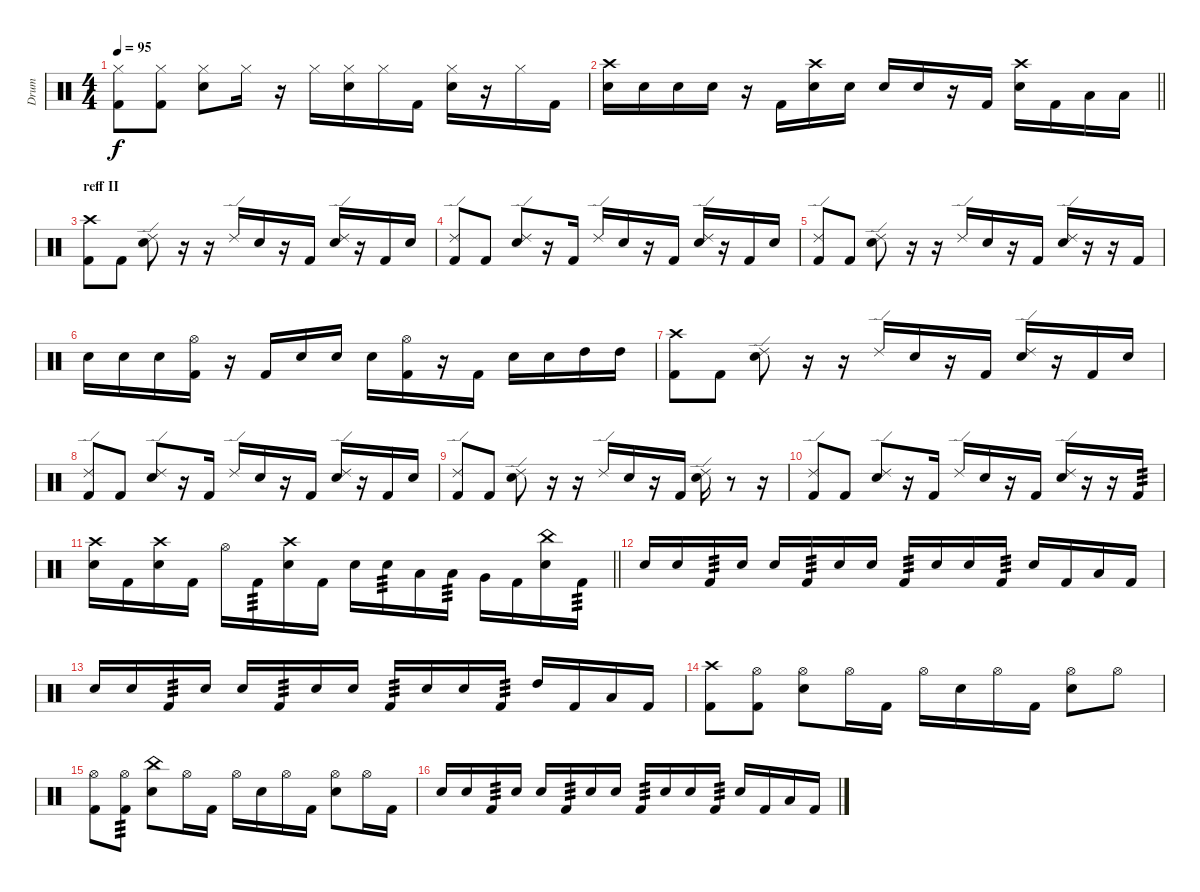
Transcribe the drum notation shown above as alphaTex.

\track ("Drum" "Drum") {instrument percussion}
\staff {score}
\articulation defaults
\ts (4 4)
\tempo 95
\clef neutral
\ks c
("Hi-Hat (closed)" "Kick (hit) 2").8{dy f} ("Hi-Hat (closed)" "Kick (hit) 2").8 ("Hi-Hat (closed)" "Snare (hit) 2").8 "Hi-Hat (closed)".16 r.16 "Hi-Hat (closed)".16 ("Hi-Hat (closed)" "Snare (hit) 2").16 "Hi-Hat (closed)".16 "Kick (hit) 2".16 ("Hi-Hat (closed)" "Snare (hit) 2").16 r.16 "Hi-Hat (closed)".16 "Kick (hit) 2".16 |
\barLineRight lightlight
("Crash high (hit)" "Snare (hit) 2").16 "Snare (hit) 2".16 "Snare (hit) 2".16 "Snare (hit) 2".16 r.16 "Kick (hit) 2".16 ("Crash high (hit)" "Snare (hit) 2").16 "Snare (hit) 2".16 "Snare (hit) 2".16 "Snare (hit) 2".16 r.16 "Kick (hit) 2".16 ("Crash high (hit)" "Snare (hit) 2").16 "Kick (hit) 2".16 "Low Tom (hit)".16 "Low Tom (hit)".16 |
\section ("" "reff II")
("Crash high (hit)" "Kick (hit) 2").8 "Kick (hit) 2".8 ("Ride (edge) 2" "Snare (hit) 2").8 r.16 r.16 "Ride (edge) 2".16 "Snare (hit) 2".16 r.16 "Kick (hit) 2".16 ("Ride (edge) 2" "Snare (hit) 2").16 r.16 "Kick (hit) 2".16 "Snare (hit) 2".16 |
("Ride (edge) 2" "Kick (hit) 2").8 "Kick (hit) 2".8 ("Ride (edge) 2" "Snare (hit) 2").8 r.16 "Kick (hit) 2".16 "Ride (edge) 2".16 "Snare (hit) 2".16 r.16 "Kick (hit) 2".16 ("Ride (edge) 2" "Snare (hit) 2").16 r.16 "Kick (hit) 2".16 "Snare (hit) 2".16 |
("Ride (edge) 2" "Kick (hit) 2").8 "Kick (hit) 2".8 ("Ride (edge) 2" "Snare (hit) 2").8 r.16 r.16 "Ride (edge) 2".16 "Snare (hit) 2".16 r.16 "Kick (hit) 2".16 ("Ride (edge) 2" "Snare (hit) 2").16 r.16 r.16 "Kick (hit) 2".16 |
"Snare (hit) 2".16 "Snare (hit) 2".16 "Snare (hit) 2".16 ("Hi-Hat (open)" "Kick (hit) 2").16 r.16 "Kick (hit) 2".16 "Snare (hit) 2".16 "Snare (hit) 2".16 "Snare (hit) 2".16 ("Hi-Hat (open)" "Kick (hit) 2").16 r.16 "Kick (hit) 2".16 "Snare (hit) 2".16 "Snare (hit) 2".16 "High Tom (hit)".16 "High Tom (hit)".16 |
("Crash high (hit)" "Kick (hit) 2").8 "Kick (hit) 2".8 ("Ride (edge) 2" "Snare (hit) 2").8 r.16 r.16 "Ride (edge) 2".16 "Snare (hit) 2".16 r.16 "Kick (hit) 2".16 ("Ride (edge) 2" "Snare (hit) 2").16 r.16 "Kick (hit) 2".16 "Snare (hit) 2".16 |
("Ride (edge) 2" "Kick (hit) 2").8 "Kick (hit) 2".8 ("Ride (edge) 2" "Snare (hit) 2").8 r.16 "Kick (hit) 2".16 "Ride (edge) 2".16 "Snare (hit) 2".16 r.16 "Kick (hit) 2".16 ("Ride (edge) 2" "Snare (hit) 2").16 r.16 "Kick (hit) 2".16 "Snare (hit) 2".16 |
("Ride (edge) 2" "Kick (hit) 2").8 "Kick (hit) 2".8 ("Ride (edge) 2" "Snare (hit) 2").8 r.16 r.16 "Ride (edge) 2".16 "Snare (hit) 2".16 r.16 "Kick (hit) 2".16 ("Ride (edge) 2" "Snare (hit) 2").16 r.8 r.16 |
("Ride (edge) 2" "Kick (hit) 2").8 "Kick (hit) 2".8 ("Ride (edge) 2" "Snare (hit) 2").8 r.16 "Kick (hit) 2".16 "Ride (edge) 2".16 "Snare (hit) 2".16 r.16 "Kick (hit) 2".16 ("Ride (edge) 2" "Snare (hit) 2").16 r.16 r.16 "Kick (hit) 2".16{tp 3} |
\barLineRight lightlight
("Crash high (hit)" "Snare (hit) 2").16 "Kick (hit) 2".16 ("Crash high (hit)" "Snare (hit) 2").16 "Kick (hit) 2".16 "Hi-Hat (open)".16 "Kick (hit) 2".16{tp 3} ("Crash high (hit)" "Snare (hit) 2").16 "Kick (hit) 2".16 "Snare (hit) 2".16 "Snare (hit) 2".16{tp 3} "Low Tom (hit)".16 "Low Floor Tom (hit)".16{tp 3} "Very Low Tom (hit)".16 "Kick (hit) 2".16 ("China (hit)" "Snare (hit) 2").16 "Kick (hit) 2".16{tp 3} |
\section ("" "")
"Snare (hit) 2".16 "Snare (hit) 2".16 "Kick (hit) 2".16{tp 3} "Snare (hit) 2".16 "Snare (hit) 2".16 "Kick (hit) 2".16{tp 3} "Snare (hit) 2".16 "Snare (hit) 2".16 "Kick (hit) 2".16{tp 3} "Snare (hit) 2".16 "Snare (hit) 2".16 "Kick (hit) 2".16{tp 3} "Snare (hit) 2".16 "Kick (hit) 2".16 "Low Tom (hit)".16 "Kick (hit) 2".16 |
"Snare (hit) 2".16 "Snare (hit) 2".16 "Kick (hit) 2".16{tp 3} "Snare (hit) 2".16 "Snare (hit) 2".16 "Kick (hit) 2".16{tp 3} "Snare (hit) 2".16 "Snare (hit) 2".16 "Kick (hit) 2".16{tp 3} "Snare (hit) 2".16 "Snare (hit) 2".16 "Kick (hit) 2".16{tp 3} "High Tom (hit)".16 "Kick (hit) 2".16 "Low Tom (hit)".16 "Kick (hit) 2".16 |
("Crash high (hit)" "Kick (hit) 2").8 ("Hi-Hat (open)" "Kick (hit) 2").8 ("Hi-Hat (open)" "Snare (hit) 2").8 "Hi-Hat (open)".16 "Kick (hit) 2".16 "Hi-Hat (open)".16 "Snare (hit) 2".16 "Hi-Hat (open)".16 "Kick (hit) 2".16 ("Hi-Hat (open)" "Snare (hit) 2").8 "Hi-Hat (open)".8 |
("Hi-Hat (open)" "Kick (hit) 2").8 ("Hi-Hat (open)" "Kick (hit) 2").8{tp 3} ("China (hit)" "Snare (hit) 2").8 "Hi-Hat (open)".16 "Kick (hit) 2".16 "Hi-Hat (open)".16 "Snare (hit) 2".16 "Hi-Hat (open)".16 "Kick (hit) 2".16 ("Hi-Hat (open)" "Snare (hit) 2").8 "Hi-Hat (open)".16 "Kick (hit) 2".16 |
"Snare (hit) 2".16 "Snare (hit) 2".16 "Kick (hit) 2".16{tp 3} "Snare (hit) 2".16 "Snare (hit) 2".16 "Kick (hit) 2".16{tp 3} "Snare (hit) 2".16 "Snare (hit) 2".16 "Kick (hit) 2".16{tp 3} "Snare (hit) 2".16 "Snare (hit) 2".16 "Kick (hit) 2".16{tp 3} "Snare (hit) 2".16 "Kick (hit) 2".16 "Low Tom (hit)".16 "Kick (hit) 2".16
